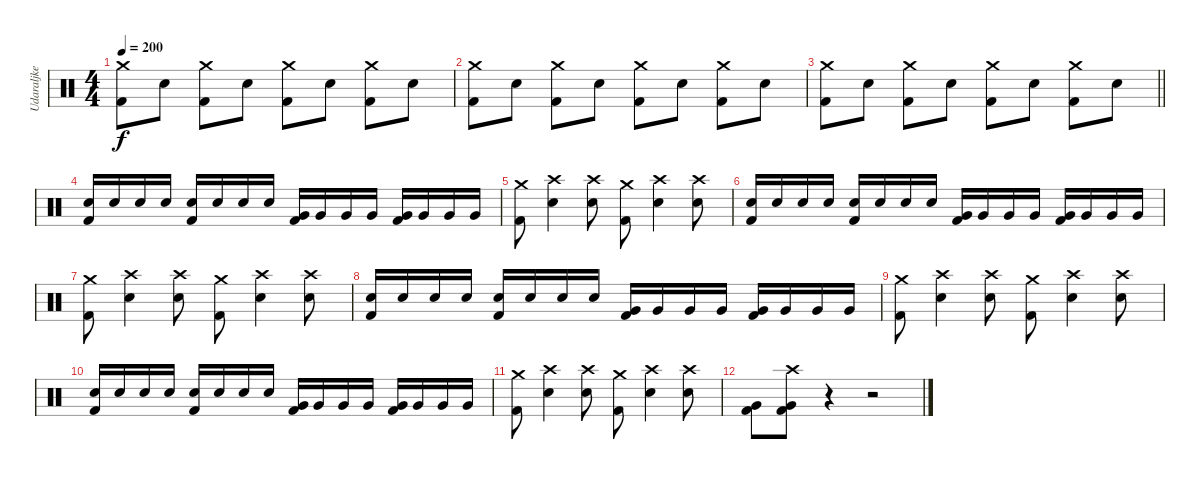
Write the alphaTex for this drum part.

\track ("Udaraljke" "Udaraljke") {instrument percussion}
\staff {score}
\articulation defaults
\ts (4 4)
\tempo 200
\clef neutral
\ks c
("Crash medium (hit)" "Kick (hit) 2").8{dy f} "Electric Snare (hit)".8 ("Crash medium (hit)" "Kick (hit) 2").8 "Electric Snare (hit)".8 ("Crash medium (hit)" "Kick (hit) 2").8 "Electric Snare (hit)".8 ("Crash medium (hit)" "Kick (hit) 2").8 "Electric Snare (hit)".8 |
("Crash medium (hit)" "Kick (hit) 2").8 "Electric Snare (hit)".8 ("Crash medium (hit)" "Kick (hit) 2").8 "Electric Snare (hit)".8 ("Crash medium (hit)" "Kick (hit) 2").8 "Electric Snare (hit)".8 ("Crash medium (hit)" "Kick (hit) 2").8 "Electric Snare (hit)".8 |
\barLineRight lightlight
("Crash medium (hit)" "Kick (hit) 2").8 "Electric Snare (hit)".8 ("Crash medium (hit)" "Kick (hit) 2").8 "Electric Snare (hit)".8 ("Crash medium (hit)" "Kick (hit) 2").8 "Electric Snare (hit)".8 ("Crash medium (hit)" "Kick (hit) 2").8 "Electric Snare (hit)".8 |
("Electric Snare (hit)" "Kick (hit) 2").16 "Electric Snare (hit)".16 "Electric Snare (hit)".16 "Electric Snare (hit)".16 ("Electric Snare (hit)" "Kick (hit) 2").16 "Electric Snare (hit)".16 "Electric Snare (hit)".16 "Electric Snare (hit)".16 ("Very Low Tom (hit)" "Kick (hit) 2").16 "Very Low Tom (hit)".16 "Very Low Tom (hit)".16 "Very Low Tom (hit)".16 ("Very Low Tom (hit)" "Kick (hit) 2").16 "Very Low Tom (hit)".16 "Very Low Tom (hit)".16 "Very Low Tom (hit)".16 |
("Crash medium (hit)" "Kick (hit) 2").8 ("Crash high (hit)" "Electric Snare (hit)").4 ("Crash high (hit)" "Electric Snare (hit)").8 ("Crash medium (hit)" "Kick (hit) 2").8 ("Crash high (hit)" "Electric Snare (hit)").4 ("Crash high (hit)" "Electric Snare (hit)").8 |
("Electric Snare (hit)" "Kick (hit) 2").16 "Electric Snare (hit)".16 "Electric Snare (hit)".16 "Electric Snare (hit)".16 ("Electric Snare (hit)" "Kick (hit) 2").16 "Electric Snare (hit)".16 "Electric Snare (hit)".16 "Electric Snare (hit)".16 ("Very Low Tom (hit)" "Kick (hit) 2").16 "Very Low Tom (hit)".16 "Very Low Tom (hit)".16 "Very Low Tom (hit)".16 ("Very Low Tom (hit)" "Kick (hit) 2").16 "Very Low Tom (hit)".16 "Very Low Tom (hit)".16 "Very Low Tom (hit)".16 |
("Crash medium (hit)" "Kick (hit) 2").8 ("Crash high (hit)" "Electric Snare (hit)").4 ("Crash high (hit)" "Electric Snare (hit)").8 ("Crash medium (hit)" "Kick (hit) 2").8 ("Crash high (hit)" "Electric Snare (hit)").4 ("Crash high (hit)" "Electric Snare (hit)").8 |
("Electric Snare (hit)" "Kick (hit) 2").16 "Electric Snare (hit)".16 "Electric Snare (hit)".16 "Electric Snare (hit)".16 ("Electric Snare (hit)" "Kick (hit) 2").16 "Electric Snare (hit)".16 "Electric Snare (hit)".16 "Electric Snare (hit)".16 ("Very Low Tom (hit)" "Kick (hit) 2").16 "Very Low Tom (hit)".16 "Very Low Tom (hit)".16 "Very Low Tom (hit)".16 ("Very Low Tom (hit)" "Kick (hit) 2").16 "Very Low Tom (hit)".16 "Very Low Tom (hit)".16 "Very Low Tom (hit)".16 |
("Crash medium (hit)" "Kick (hit) 2").8 ("Crash high (hit)" "Electric Snare (hit)").4 ("Crash high (hit)" "Electric Snare (hit)").8 ("Crash medium (hit)" "Kick (hit) 2").8 ("Crash high (hit)" "Electric Snare (hit)").4 ("Crash high (hit)" "Electric Snare (hit)").8 |
("Electric Snare (hit)" "Kick (hit) 2").16 "Electric Snare (hit)".16 "Electric Snare (hit)".16 "Electric Snare (hit)".16 ("Electric Snare (hit)" "Kick (hit) 2").16 "Electric Snare (hit)".16 "Electric Snare (hit)".16 "Electric Snare (hit)".16 ("Very Low Tom (hit)" "Kick (hit) 2").16 "Very Low Tom (hit)".16 "Very Low Tom (hit)".16 "Very Low Tom (hit)".16 ("Very Low Tom (hit)" "Kick (hit) 2").16 "Very Low Tom (hit)".16 "Very Low Tom (hit)".16 "Very Low Tom (hit)".16 |
("Crash medium (hit)" "Kick (hit) 2").8 ("Crash high (hit)" "Electric Snare (hit)").4 ("Crash high (hit)" "Electric Snare (hit)").8 ("Crash medium (hit)" "Kick (hit) 2").8 ("Crash high (hit)" "Electric Snare (hit)").4 ("Crash high (hit)" "Electric Snare (hit)").8 |
("Very Low Tom (hit)" "Kick (hit) 2").8 ("Crash high (hit)" "Very Low Tom (hit)" "Kick (hit) 2").8 r.4 r.2
